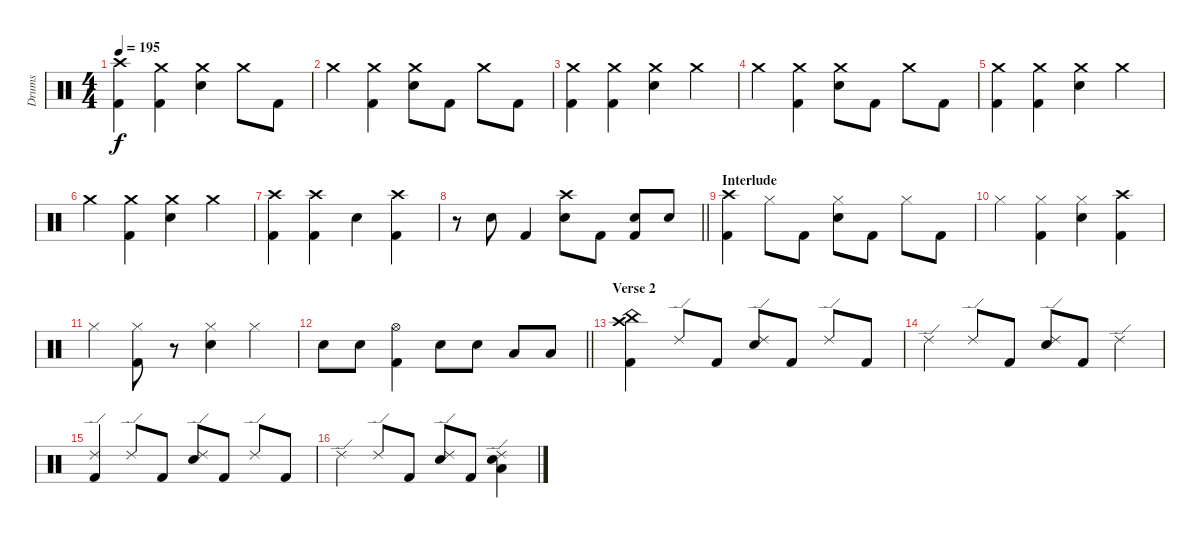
\track ("Drums" "Drums") {instrument percussion}
\staff {score}
\articulation defaults
\ts (4 4)
\tempo 195
\clef neutral
\ks c
("Crash high (hit)" "Kick (hit) 2").4{dy f} ("Crash medium (hit)" "Kick (hit) 2").4 ("Crash medium (hit)" "Snare (hit) 2").4 "Crash medium (hit)".8 "Kick (hit) 2".8 |
"Crash medium (hit)".4 ("Crash medium (hit)" "Kick (hit) 2").4 ("Crash medium (hit)" "Snare (hit) 2").8 "Kick (hit) 2".8 "Crash medium (hit)".8 "Kick (hit) 2".8 |
("Crash medium (hit)" "Kick (hit) 2").4 ("Crash medium (hit)" "Kick (hit) 2").4 ("Crash medium (hit)" "Snare (hit) 2").4 "Crash medium (hit)".4 |
"Crash medium (hit)".4 ("Crash medium (hit)" "Kick (hit) 2").4 ("Crash medium (hit)" "Snare (hit) 2").8 "Kick (hit) 2".8 "Crash medium (hit)".8 "Kick (hit) 2".8 |
("Crash medium (hit)" "Kick (hit) 2").4 ("Crash medium (hit)" "Kick (hit) 2").4 ("Crash medium (hit)" "Snare (hit) 2").4 "Crash medium (hit)".4 |
"Crash medium (hit)".4 ("Crash medium (hit)" "Kick (hit) 2").4 ("Crash medium (hit)" "Snare (hit) 2").4 "Crash medium (hit)".4 |
("Crash high (hit)" "Kick (hit) 2").4 ("Crash high (hit)" "Kick (hit) 2").4 "Snare (hit) 2".4 ("Crash high (hit)" "Kick (hit) 2").4 |
\barLineRight lightlight
r.8 "Snare (hit) 2".8 "Kick (hit) 2".4 ("Crash high (hit)" "Snare (hit) 2").8 "Kick (hit) 2".8 ("Snare (hit) 2" "Kick (hit) 2").8 "Snare (hit) 2".8 |
\section ("" "Interlude")
("Crash high (hit)" "Kick (hit) 2").4 "Hi-Hat (closed)".8 "Kick (hit) 2".8 ("Hi-Hat (closed)" "Snare (hit) 2").8 "Kick (hit) 2".8 "Hi-Hat (closed)".8 "Kick (hit) 2".8 |
"Hi-Hat (closed)".4 ("Hi-Hat (closed)" "Kick (hit) 2").4 ("Hi-Hat (closed)" "Snare (hit) 2").4 ("Crash high (hit)" "Kick (hit) 2").4 |
"Hi-Hat (closed)".4 ("Hi-Hat (closed)" "Kick (hit) 2").8 r.8 ("Hi-Hat (closed)" "Snare (hit) 2").4 "Hi-Hat (closed)".4 |
\barLineRight lightlight "Snare (hit) 2".8 "Snare (hit) 2".8
("Hi-Hat (open)" "Kick (hit) 2").4 "Snare (hit) 2".8 "Snare (hit) 2".8 "Low Floor Tom (hit)".8 "Low Floor Tom (hit)".8 |
\section ("" "Verse 2")
("Crash high (hit)" "Kick (hit) 2" "China (hit)").4 "Ride (edge) 2".8 "Kick (hit) 2".8 ("Ride (edge) 2" "Snare (hit) 2").8 "Kick (hit) 2".8 "Ride (edge) 2".8 "Kick (hit) 2".8 |
"Ride (edge) 2".4 "Ride (edge) 2".8 "Kick (hit) 2".8 ("Ride (edge) 2" "Snare (hit) 2").8 "Kick (hit) 2".8 "Ride (edge) 2".4 |
("Ride (edge) 2" "Kick (hit) 2").4 "Ride (edge) 2".8 "Kick (hit) 2".8 ("Ride (edge) 2" "Snare (hit) 2").8 "Kick (hit) 2".8 "Ride (edge) 2".8 "Kick (hit) 2".8 |
"Ride (edge) 2".4 "Ride (edge) 2".8 "Kick (hit) 2".8 ("Ride (edge) 2" "Snare (hit) 2").8 "Kick (hit) 2".8 ("Ride (edge) 2" "Snare (hit) 2" "Low Floor Tom (hit)").4
